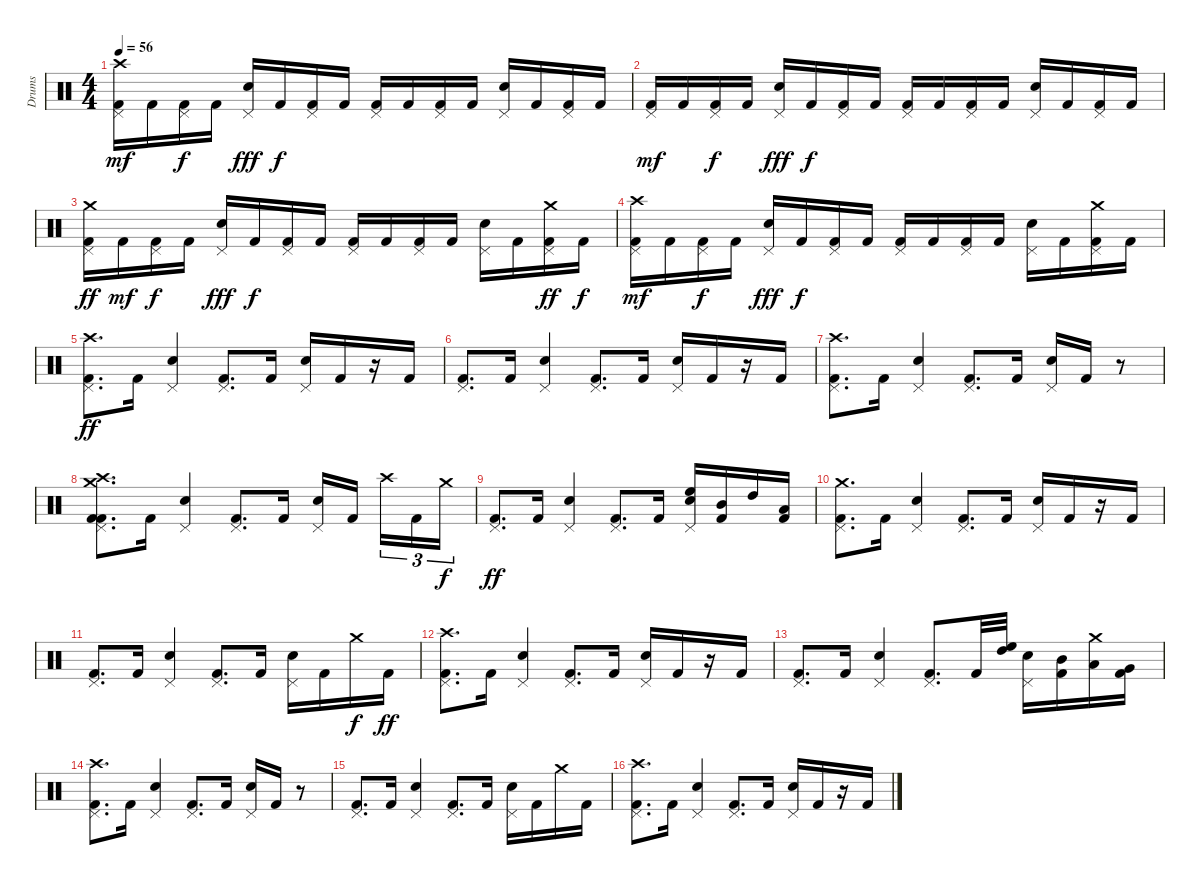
\track ("Drums" "Drums") {instrument percussion}
\staff {score}
\articulation defaults
\ts (4 4)
\tempo 56
\clef neutral
\ks c
("Crash high (hit)" "Pedal Hi-Hat (hit)" "Kick (hit) 2").16{dy mf} "Kick (hit) 2".16 ("Pedal Hi-Hat (hit)" "Kick (hit) 2").16{dy f} "Kick (hit) 2".16 ("Pedal Hi-Hat (hit)" "Snare (hit) 2").16{dy fff} "Kick (hit) 2".16{dy f} ("Pedal Hi-Hat (hit)" "Kick (hit) 2").16 "Kick (hit) 2".16 ("Pedal Hi-Hat (hit)" "Kick (hit) 2").16 "Kick (hit) 2".16 ("Pedal Hi-Hat (hit)" "Kick (hit) 2").16 "Kick (hit) 2".16 ("Pedal Hi-Hat (hit)" "Snare (hit) 2").16 "Kick (hit) 2".16 ("Pedal Hi-Hat (hit)" "Kick (hit) 2").16 "Kick (hit) 2".16 |
("Pedal Hi-Hat (hit)" "Kick (hit) 2").16{dy mf} "Kick (hit) 2".16 ("Pedal Hi-Hat (hit)" "Kick (hit) 2").16{dy f} "Kick (hit) 2".16 ("Pedal Hi-Hat (hit)" "Snare (hit) 2").16{dy fff} "Kick (hit) 2".16{dy f} ("Pedal Hi-Hat (hit)" "Kick (hit) 2").16 "Kick (hit) 2".16 ("Pedal Hi-Hat (hit)" "Kick (hit) 2").16 "Kick (hit) 2".16 ("Pedal Hi-Hat (hit)" "Kick (hit) 2").16 "Kick (hit) 2".16 ("Pedal Hi-Hat (hit)" "Snare (hit) 2").16 "Kick (hit) 2".16 ("Pedal Hi-Hat (hit)" "Kick (hit) 2").16 "Kick (hit) 2".16 |
("Pedal Hi-Hat (hit)" "Kick (hit) 2" "Crash medium (hit)").16{dy ff} "Kick (hit) 2".16{dy mf} ("Pedal Hi-Hat (hit)" "Kick (hit) 2").16{dy f} "Kick (hit) 2".16 ("Pedal Hi-Hat (hit)" "Snare (hit) 2").16{dy fff} "Kick (hit) 2".16{dy f} ("Pedal Hi-Hat (hit)" "Kick (hit) 2").16 "Kick (hit) 2".16 ("Pedal Hi-Hat (hit)" "Kick (hit) 2").16 "Kick (hit) 2".16 ("Pedal Hi-Hat (hit)" "Kick (hit) 2").16 "Kick (hit) 2".16 ("Pedal Hi-Hat (hit)" "Snare (hit) 2").16 "Kick (hit) 2".16 ("Pedal Hi-Hat (hit)" "Kick (hit) 2" "Crash medium (hit)").16{dy ff} "Kick (hit) 2".16{dy f} |
("Crash high (hit)" "Pedal Hi-Hat (hit)" "Kick (hit) 2").16{dy mf} "Kick (hit) 2".16 ("Pedal Hi-Hat (hit)" "Kick (hit) 2").16{dy f} "Kick (hit) 2".16 ("Pedal Hi-Hat (hit)" "Snare (hit) 2").16{dy fff} "Kick (hit) 2".16{dy f} ("Pedal Hi-Hat (hit)" "Kick (hit) 2").16 "Kick (hit) 2".16 ("Pedal Hi-Hat (hit)" "Kick (hit) 2").16 "Kick (hit) 2".16 ("Pedal Hi-Hat (hit)" "Kick (hit) 2").16 "Kick (hit) 2".16 ("Pedal Hi-Hat (hit)" "Snare (hit) 2").16 "Kick (hit) 2".16 ("Crash medium (hit)" "Pedal Hi-Hat (hit)" "Kick (hit) 2").16 "Kick (hit) 2".16 |
("Crash high (hit)" "Pedal Hi-Hat (hit)" "Kick (hit) 2").8{d dy ff} "Kick (hit) 2".16 ("Snare (hit) 2" "Pedal Hi-Hat (hit)").4 ("Kick (hit) 2" "Pedal Hi-Hat (hit)").8{d} "Kick (hit) 2".16 ("Snare (hit) 2" "Pedal Hi-Hat (hit)").16 "Kick (hit) 2".16 r.16 "Kick (hit) 2".16 |
("Pedal Hi-Hat (hit)" "Kick (hit) 2").8{d} "Kick (hit) 2".16 ("Snare (hit) 2" "Pedal Hi-Hat (hit)").4 ("Kick (hit) 2" "Pedal Hi-Hat (hit)").8{d} "Kick (hit) 2".16 ("Snare (hit) 2" "Pedal Hi-Hat (hit)").16 "Kick (hit) 2".16 r.16 "Kick (hit) 2".16 |
("Crash high (hit)" "Pedal Hi-Hat (hit)" "Kick (hit) 2").8{d} "Kick (hit) 2".16 ("Snare (hit) 2" "Pedal Hi-Hat (hit)").4 ("Kick (hit) 2" "Pedal Hi-Hat (hit)").8{d} "Kick (hit) 2".16 ("Snare (hit) 2" "Pedal Hi-Hat (hit)").16 "Kick (hit) 2".16 r.8 |
("Pedal Hi-Hat (hit)" "Kick (hit) 2" "Crash medium (hit)" "Crash high (hit)" "Kick (hit) 2").8{d} "Kick (hit) 2".16 ("Snare (hit) 2" "Pedal Hi-Hat (hit)").4 ("Kick (hit) 2" "Pedal Hi-Hat (hit)").8{d} "Kick (hit) 2".16 ("Snare (hit) 2" "Pedal Hi-Hat (hit)").16 "Kick (hit) 2".16{beam splitsecondary} "Crash high (hit)".16{tu (3 2)} "Kick (hit) 2".16{tu (3 2)} "Crash medium (hit)".16{tu (3 2) dy f} |
("Pedal Hi-Hat (hit)" "Kick (hit) 2").8{d dy ff} "Kick (hit) 2".16 ("Snare (hit) 2" "Pedal Hi-Hat (hit)").4 ("Kick (hit) 2" "Pedal Hi-Hat (hit)").8{d} "Kick (hit) 2".16 ("High Floor Tom (hit)" "Snare (hit) 2" "Pedal Hi-Hat (hit)").16 ("Mid Tom (hit)" "Kick (hit) 2").16 "High Tom (hit)".16 ("Low Tom (hit)" "Kick (hit) 2").16 |
("Crash medium (hit)" "Pedal Hi-Hat (hit)" "Kick (hit) 2").8{d} "Kick (hit) 2".16 ("Snare (hit) 2" "Pedal Hi-Hat (hit)").4 ("Kick (hit) 2" "Pedal Hi-Hat (hit)").8{d} "Kick (hit) 2".16 ("Snare (hit) 2" "Pedal Hi-Hat (hit)").16 "Kick (hit) 2".16 r.16 "Kick (hit) 2".16 |
("Pedal Hi-Hat (hit)" "Kick (hit) 2").8{d} "Kick (hit) 2".16 ("Snare (hit) 2" "Pedal Hi-Hat (hit)").4 ("Kick (hit) 2" "Pedal Hi-Hat (hit)").8{d} "Kick (hit) 2".16 ("Snare (hit) 2" "Pedal Hi-Hat (hit)").16 "Kick (hit) 2".16 "Crash medium (hit)".16{dy f} "Kick (hit) 2".16{dy ff} |
("Crash high (hit)" "Pedal Hi-Hat (hit)" "Kick (hit) 2").8{d} "Kick (hit) 2".16 ("Snare (hit) 2" "Pedal Hi-Hat (hit)").4 ("Kick (hit) 2" "Pedal Hi-Hat (hit)").8{d} "Kick (hit) 2".16 ("Snare (hit) 2" "Pedal Hi-Hat (hit)").16 "Kick (hit) 2".16 r.16 "Kick (hit) 2".16 |
("Pedal Hi-Hat (hit)" "Kick (hit) 2").8{d} "Kick (hit) 2".16 ("Snare (hit) 2" "Pedal Hi-Hat (hit)").4 ("Kick (hit) 2" "Pedal Hi-Hat (hit)").8{d} "Kick (hit) 2".32 ("High Floor Tom (hit)" "High Tom (hit)").32 ("Snare (hit) 2" "Pedal Hi-Hat (hit)").16 ("Mid Tom (hit)" "Kick (hit) 2").16 ("Crash medium (hit)" "Low Tom (hit)").16 ("Kick (hit) 2" "Very Low Tom (hit)").16 |
("Crash high (hit)" "Pedal Hi-Hat (hit)" "Kick (hit) 2").8{d} "Kick (hit) 2".16 ("Snare (hit) 2" "Pedal Hi-Hat (hit)").4 ("Kick (hit) 2" "Pedal Hi-Hat (hit)").8{d} "Kick (hit) 2".16 ("Snare (hit) 2" "Pedal Hi-Hat (hit)").16 "Kick (hit) 2".16 r.8 |
("Pedal Hi-Hat (hit)" "Kick (hit) 2").8{d} "Kick (hit) 2".16 ("Snare (hit) 2" "Pedal Hi-Hat (hit)").4 ("Kick (hit) 2" "Pedal Hi-Hat (hit)").8{d} "Kick (hit) 2".16 ("Snare (hit) 2" "Pedal Hi-Hat (hit)").16 "Kick (hit) 2".16 "Crash medium (hit)".16 "Kick (hit) 2".16 |
("Crash high (hit)" "Pedal Hi-Hat (hit)" "Kick (hit) 2").8{d} "Kick (hit) 2".16 ("Snare (hit) 2" "Pedal Hi-Hat (hit)").4 ("Kick (hit) 2" "Pedal Hi-Hat (hit)").8{d} "Kick (hit) 2".16 ("Snare (hit) 2" "Pedal Hi-Hat (hit)").16 "Kick (hit) 2".16 r.16 "Kick (hit) 2".16
